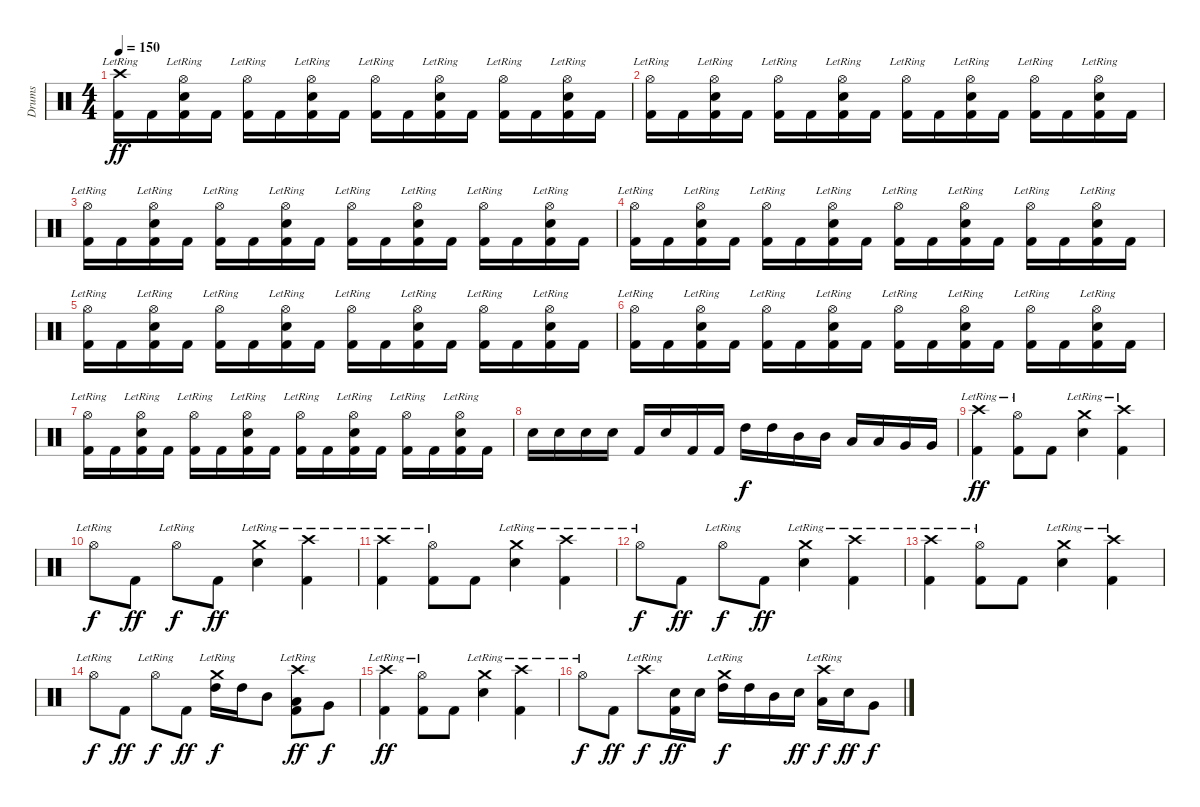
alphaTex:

\track ("Drums" "Drums") {instrument percussion}
\staff {score}
\articulation defaults
\ts (4 4)
\tempo 150
\clef neutral
\ks c
("Crash high (hit)"{lr} "Kick (hit) 2").16{dy ff} "Kick (hit) 2".16 ("Hi-Hat (open)"{lr} "Snare (hit) 2" "Kick (hit) 2").16 "Kick (hit) 2".16 ("Hi-Hat (open)"{lr} "Kick (hit) 2").16 "Kick (hit) 2".16 ("Hi-Hat (open)"{lr} "Snare (hit) 2" "Kick (hit) 2").16 "Kick (hit) 2".16 ("Hi-Hat (open)"{lr} "Kick (hit) 2").16 "Kick (hit) 2".16 ("Hi-Hat (open)"{lr} "Snare (hit) 2" "Kick (hit) 2").16 "Kick (hit) 2".16 ("Hi-Hat (open)"{lr} "Kick (hit) 2").16 "Kick (hit) 2".16 ("Hi-Hat (open)"{lr} "Snare (hit) 2" "Kick (hit) 2").16 "Kick (hit) 2".16 |
("Hi-Hat (open)"{lr} "Kick (hit) 2").16 "Kick (hit) 2".16 ("Hi-Hat (open)"{lr} "Snare (hit) 2" "Kick (hit) 2").16 "Kick (hit) 2".16 ("Hi-Hat (open)"{lr} "Kick (hit) 2").16 "Kick (hit) 2".16 ("Hi-Hat (open)"{lr} "Snare (hit) 2" "Kick (hit) 2").16 "Kick (hit) 2".16 ("Hi-Hat (open)"{lr} "Kick (hit) 2").16 "Kick (hit) 2".16 ("Hi-Hat (open)"{lr} "Snare (hit) 2" "Kick (hit) 2").16 "Kick (hit) 2".16 ("Hi-Hat (open)"{lr} "Kick (hit) 2").16 "Kick (hit) 2".16 ("Hi-Hat (open)"{lr} "Snare (hit) 2" "Kick (hit) 2").16 "Kick (hit) 2".16 |
("Hi-Hat (open)"{lr} "Kick (hit) 2").16 "Kick (hit) 2".16 ("Hi-Hat (open)"{lr} "Snare (hit) 2" "Kick (hit) 2").16 "Kick (hit) 2".16 ("Hi-Hat (open)"{lr} "Kick (hit) 2").16 "Kick (hit) 2".16 ("Hi-Hat (open)"{lr} "Snare (hit) 2" "Kick (hit) 2").16 "Kick (hit) 2".16 ("Hi-Hat (open)"{lr} "Kick (hit) 2").16 "Kick (hit) 2".16 ("Hi-Hat (open)"{lr} "Snare (hit) 2" "Kick (hit) 2").16 "Kick (hit) 2".16 ("Hi-Hat (open)"{lr} "Kick (hit) 2").16 "Kick (hit) 2".16 ("Hi-Hat (open)"{lr} "Snare (hit) 2" "Kick (hit) 2").16 "Kick (hit) 2".16 |
("Hi-Hat (open)"{lr} "Kick (hit) 2").16 "Kick (hit) 2".16 ("Hi-Hat (open)"{lr} "Snare (hit) 2" "Kick (hit) 2").16 "Kick (hit) 2".16 ("Hi-Hat (open)"{lr} "Kick (hit) 2").16 "Kick (hit) 2".16 ("Hi-Hat (open)"{lr} "Snare (hit) 2" "Kick (hit) 2").16 "Kick (hit) 2".16 ("Hi-Hat (open)"{lr} "Kick (hit) 2").16 "Kick (hit) 2".16 ("Hi-Hat (open)"{lr} "Snare (hit) 2" "Kick (hit) 2").16 "Kick (hit) 2".16 ("Hi-Hat (open)"{lr} "Kick (hit) 2").16 "Kick (hit) 2".16 ("Hi-Hat (open)"{lr} "Snare (hit) 2" "Kick (hit) 2").16 "Kick (hit) 2".16 |
("Hi-Hat (open)"{lr} "Kick (hit) 2").16 "Kick (hit) 2".16 ("Hi-Hat (open)"{lr} "Snare (hit) 2" "Kick (hit) 2").16 "Kick (hit) 2".16 ("Hi-Hat (open)"{lr} "Kick (hit) 2").16 "Kick (hit) 2".16 ("Hi-Hat (open)"{lr} "Snare (hit) 2" "Kick (hit) 2").16 "Kick (hit) 2".16 ("Hi-Hat (open)"{lr} "Kick (hit) 2").16 "Kick (hit) 2".16 ("Hi-Hat (open)"{lr} "Snare (hit) 2" "Kick (hit) 2").16 "Kick (hit) 2".16 ("Hi-Hat (open)"{lr} "Kick (hit) 2").16 "Kick (hit) 2".16 ("Hi-Hat (open)"{lr} "Snare (hit) 2" "Kick (hit) 2").16 "Kick (hit) 2".16 |
("Hi-Hat (open)"{lr} "Kick (hit) 2").16 "Kick (hit) 2".16 ("Hi-Hat (open)"{lr} "Snare (hit) 2" "Kick (hit) 2").16 "Kick (hit) 2".16 ("Hi-Hat (open)"{lr} "Kick (hit) 2").16 "Kick (hit) 2".16 ("Hi-Hat (open)"{lr} "Snare (hit) 2" "Kick (hit) 2").16 "Kick (hit) 2".16 ("Hi-Hat (open)"{lr} "Kick (hit) 2").16 "Kick (hit) 2".16 ("Hi-Hat (open)"{lr} "Snare (hit) 2" "Kick (hit) 2").16 "Kick (hit) 2".16 ("Hi-Hat (open)"{lr} "Kick (hit) 2").16 "Kick (hit) 2".16 ("Hi-Hat (open)"{lr} "Snare (hit) 2" "Kick (hit) 2").16 "Kick (hit) 2".16 |
("Hi-Hat (open)"{lr} "Kick (hit) 2").16 "Kick (hit) 2".16 ("Hi-Hat (open)"{lr} "Snare (hit) 2" "Kick (hit) 2").16 "Kick (hit) 2".16 ("Hi-Hat (open)"{lr} "Kick (hit) 2").16 "Kick (hit) 2".16 ("Hi-Hat (open)"{lr} "Snare (hit) 2" "Kick (hit) 2").16 "Kick (hit) 2".16 ("Hi-Hat (open)"{lr} "Kick (hit) 2").16 "Kick (hit) 2".16 ("Hi-Hat (open)"{lr} "Snare (hit) 2" "Kick (hit) 2").16 "Kick (hit) 2".16 ("Hi-Hat (open)"{lr} "Kick (hit) 2").16 "Kick (hit) 2".16 ("Hi-Hat (open)"{lr} "Snare (hit) 2" "Kick (hit) 2").16 "Kick (hit) 2".16 |
"Snare (hit) 2".16 "Snare (hit) 2".16 "Snare (hit) 2".16 "Snare (hit) 2".16 "Kick (hit) 2".16 "Snare (hit) 2".16 "Kick (hit) 2".16 "Kick (hit) 2".16 "High Tom (hit)".16{dy f} "High Tom (hit)".16 "Mid Tom (hit)".16 "Mid Tom (hit)".16 "Low Tom (hit)".16 "Low Tom (hit)".16 "Very Low Tom (hit)".16 "Very Low Tom (hit)".16 |
("Crash high (hit)"{lr} "Kick (hit) 2").4{dy ff} ("Hi-Hat (open)"{lr} "Kick (hit) 2").8 "Kick (hit) 2".8 ("Crash medium (hit)"{lr} "Snare (hit) 2").4 ("Crash high (hit)"{lr} "Kick (hit) 2").4 |
"Hi-Hat (open)"{lr}.8{dy f} "Kick (hit) 2".8{dy ff} "Hi-Hat (open)"{lr}.8{dy f} "Kick (hit) 2".8{dy ff} ("Crash medium (hit)"{lr} "Snare (hit) 2").4 ("Crash high (hit)"{lr} "Kick (hit) 2").4 |
("Crash high (hit)"{lr} "Kick (hit) 2").4 ("Hi-Hat (open)"{lr} "Kick (hit) 2").8 "Kick (hit) 2".8 ("Crash medium (hit)"{lr} "Snare (hit) 2").4 ("Crash high (hit)"{lr} "Kick (hit) 2").4 |
"Hi-Hat (open)"{lr}.8{dy f} "Kick (hit) 2".8{dy ff} "Hi-Hat (open)"{lr}.8{dy f} "Kick (hit) 2".8{dy ff} ("Crash medium (hit)"{lr} "Snare (hit) 2").4 ("Crash high (hit)"{lr} "Kick (hit) 2").4 |
("Crash high (hit)"{lr} "Kick (hit) 2").4 ("Hi-Hat (open)"{lr} "Kick (hit) 2").8 "Kick (hit) 2".8 ("Crash medium (hit)"{lr} "Snare (hit) 2").4 ("Crash high (hit)"{lr} "Kick (hit) 2").4 |
"Hi-Hat (open)"{lr}.8{dy f} "Kick (hit) 2".8{dy ff} "Hi-Hat (open)"{lr}.8{dy f} "Kick (hit) 2".8{dy ff} ("Crash medium (hit)"{lr} "High Tom (hit)").16{dy f} "High Tom (hit)".16 "Mid Tom (hit)".8 ("Crash high (hit)"{lr} "Low Tom (hit)" "Kick (hit) 2").8{dy ff} "Very Low Tom (hit)".8{dy f} |
("Crash high (hit)"{lr} "Kick (hit) 2").4{dy ff} ("Hi-Hat (open)"{lr} "Kick (hit) 2").8 "Kick (hit) 2".8 ("Crash medium (hit)"{lr} "Snare (hit) 2").4 ("Crash high (hit)"{lr} "Kick (hit) 2").4 |
"Hi-Hat (open)"{lr}.8{dy f} "Kick (hit) 2".8{dy ff} "Crash high (hit)"{lr}.8{dy f} ("Snare (hit) 2" "Kick (hit) 2").16{dy ff} "Snare (hit) 2".16 ("Crash medium (hit)"{lr} "High Tom (hit)").16{dy f} "High Tom (hit)".16 "Mid Tom (hit)".16 "Snare (hit) 2".16{dy ff} ("Crash high (hit)"{lr} "Low Tom (hit)").16{dy f} "Snare (hit) 2".16{dy ff} "Very Low Tom (hit)".8{dy f}
